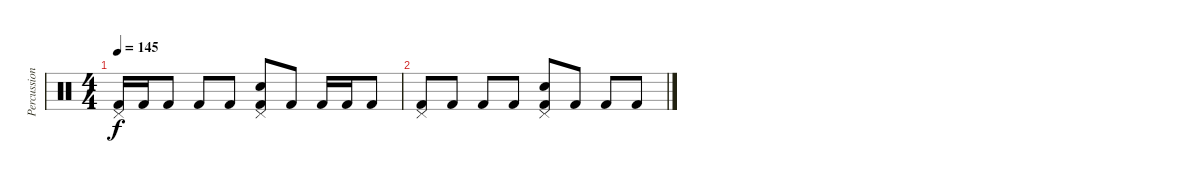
\track ("Percussion" "Percussion") {instrument percussion}
\staff {score}
\articulation defaults
\ts (4 4)
\tempo 145
\clef neutral
\ks c
("Pedal Hi-Hat (hit)" "Kick (hit) 2").16{dy f} "Kick (hit) 2".16 "Kick (hit) 2".8 "Kick (hit) 2".8 "Kick (hit) 2".8 ("Electric Snare (hit)" "Pedal Hi-Hat (hit)" "Kick (hit) 2").8 "Kick (hit) 2".8 "Kick (hit) 2".16 "Kick (hit) 2".16 "Kick (hit) 2".8 |
("Pedal Hi-Hat (hit)" "Kick (hit) 2").8 "Kick (hit) 2".8 "Kick (hit) 2".8 "Kick (hit) 2".8 ("Electric Snare (hit)" "Pedal Hi-Hat (hit)" "Kick (hit) 2").8 "Kick (hit) 2".8 "Kick (hit) 2".8 "Kick (hit) 2".8
